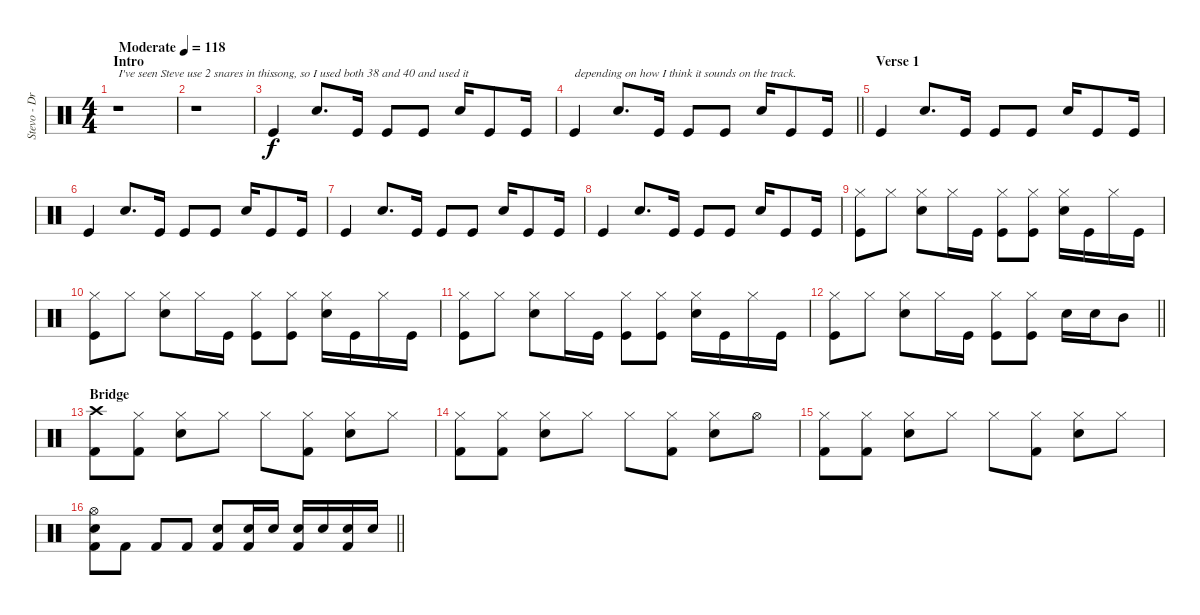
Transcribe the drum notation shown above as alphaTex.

\track ("Stevo - Drums" "Stevo - Dr") {instrument percussion}
\staff {score}
\articulation defaults
\ts (4 4)
\section ("" "Intro")
\tempo (118 "Moderate")
\clef neutral
\ks c
r.1{txt "I've seen Steve use 2 snares in this" dy f} |
r.1 |
"Kick (hit)".4{txt "song, so I used both 38 and 40 and used it"} "Snare (hit) 2".8{d} "Kick (hit)".16 "Kick (hit)".8 "Kick (hit)".8 "Electric Snare (hit)".16 "Kick (hit)".8 "Kick (hit)".16 |
\barLineRight lightlight "Kick (hit)".4{txt "depending on how I think it sounds on the track."} "Snare (hit) 2".8{d} "Kick (hit)".16 "Kick (hit)".8 "Kick (hit)".8 "Electric Snare (hit)".16 "Kick (hit)".8 "Kick (hit)".16
|
\section ("" "Verse 1")
"Kick (hit)".4 "Snare (hit) 2".8{d} "Kick (hit)".16 "Kick (hit)".8 "Kick (hit)".8 "Electric Snare (hit)".16 "Kick (hit)".8 "Kick (hit)".16 |
"Kick (hit)".4 "Snare (hit) 2".8{d} "Kick (hit)".16 "Kick (hit)".8 "Kick (hit)".8 "Electric Snare (hit)".16 "Kick (hit)".8 "Kick (hit)".16 |
"Kick (hit)".4 "Snare (hit) 2".8{d} "Kick (hit)".16 "Kick (hit)".8 "Kick (hit)".8 "Electric Snare (hit)".16 "Kick (hit)".8 "Kick (hit)".16 |
"Kick (hit)".4 "Snare (hit) 2".8{d} "Kick (hit)".16 "Kick (hit)".8 "Kick (hit)".8 "Electric Snare (hit)".16 "Kick (hit)".8 "Kick (hit)".16 |
("Hi-Hat (closed)" "Kick (hit)").8 "Hi-Hat (closed)".8 ("Hi-Hat (closed)" "Snare (hit) 2").8 "Hi-Hat (closed)".16 "Kick (hit)".16 ("Hi-Hat (closed)" "Kick (hit)").8 ("Hi-Hat (closed)" "Kick (hit)").8 ("Hi-Hat (closed)" "Electric Snare (hit)").16 "Kick (hit)".16 "Hi-Hat (closed)".16 "Kick (hit)".16 |
("Hi-Hat (closed)" "Kick (hit)").8 "Hi-Hat (closed)".8 ("Hi-Hat (closed)" "Snare (hit) 2").8 "Hi-Hat (closed)".16 "Kick (hit)".16 ("Hi-Hat (closed)" "Kick (hit)").8 ("Hi-Hat (closed)" "Kick (hit)").8 ("Hi-Hat (closed)" "Electric Snare (hit)").16 "Kick (hit)".16 "Hi-Hat (closed)".16 "Kick (hit)".16 |
("Hi-Hat (closed)" "Kick (hit)").8 "Hi-Hat (closed)".8 ("Hi-Hat (closed)" "Snare (hit) 2").8 "Hi-Hat (closed)".16 "Kick (hit)".16 ("Hi-Hat (closed)" "Kick (hit)").8 ("Hi-Hat (closed)" "Kick (hit)").8 ("Hi-Hat (closed)" "Electric Snare (hit)").16 "Kick (hit)".16 "Hi-Hat (closed)".16 "Kick (hit)".16 |
\barLineRight lightlight
("Hi-Hat (closed)" "Kick (hit)").8 "Hi-Hat (closed)".8 ("Hi-Hat (closed)" "Snare (hit) 2").8 "Hi-Hat (closed)".16 "Kick (hit)".16 ("Hi-Hat (closed)" "Kick (hit)").8 ("Hi-Hat (closed)" "Kick (hit)").8 "Snare (hit) 2".16 "Snare (hit) 2".16 "Mid Tom (hit)".8 |
\section ("" "Bridge")
("Crash high (hit)" "Kick (hit) 2").8 ("Hi-Hat (closed)" "Kick (hit) 2").8 ("Hi-Hat (closed)" "Snare (hit) 2").8 "Hi-Hat (closed)".8 "Hi-Hat (closed)".8 ("Hi-Hat (closed)" "Kick (hit) 2").8 ("Hi-Hat (closed)" "Snare (hit) 2").8 "Hi-Hat (closed)".8 |
("Hi-Hat (closed)" "Kick (hit) 2").8 ("Hi-Hat (closed)" "Kick (hit) 2").8 ("Hi-Hat (closed)" "Snare (hit) 2").8 "Hi-Hat (closed)".8 "Hi-Hat (closed)".8 ("Hi-Hat (closed)" "Kick (hit) 2").8 ("Hi-Hat (closed)" "Snare (hit) 2").8 "Hi-Hat (open)".8 |
("Hi-Hat (closed)" "Kick (hit) 2").8 ("Hi-Hat (closed)" "Kick (hit) 2").8 ("Hi-Hat (closed)" "Snare (hit) 2").8 "Hi-Hat (closed)".8 "Hi-Hat (closed)".8 ("Hi-Hat (closed)" "Kick (hit) 2").8 ("Hi-Hat (closed)" "Snare (hit) 2").8 "Hi-Hat (closed)".8 |
\barLineRight lightlight
("Hi-Hat (open)" "Snare (hit) 2" "Kick (hit) 2").8 "Kick (hit) 2".8 "Kick (hit) 2".8 "Kick (hit) 2".8 ("Snare (hit) 2" "Kick (hit) 2").8 ("Snare (hit) 2" "Kick (hit) 2").16 "Snare (hit) 2".16 ("Snare (hit) 2" "Kick (hit) 2").16 "Snare (hit) 2".16 ("Snare (hit) 2" "Kick (hit) 2").16 "Snare (hit) 2".16
